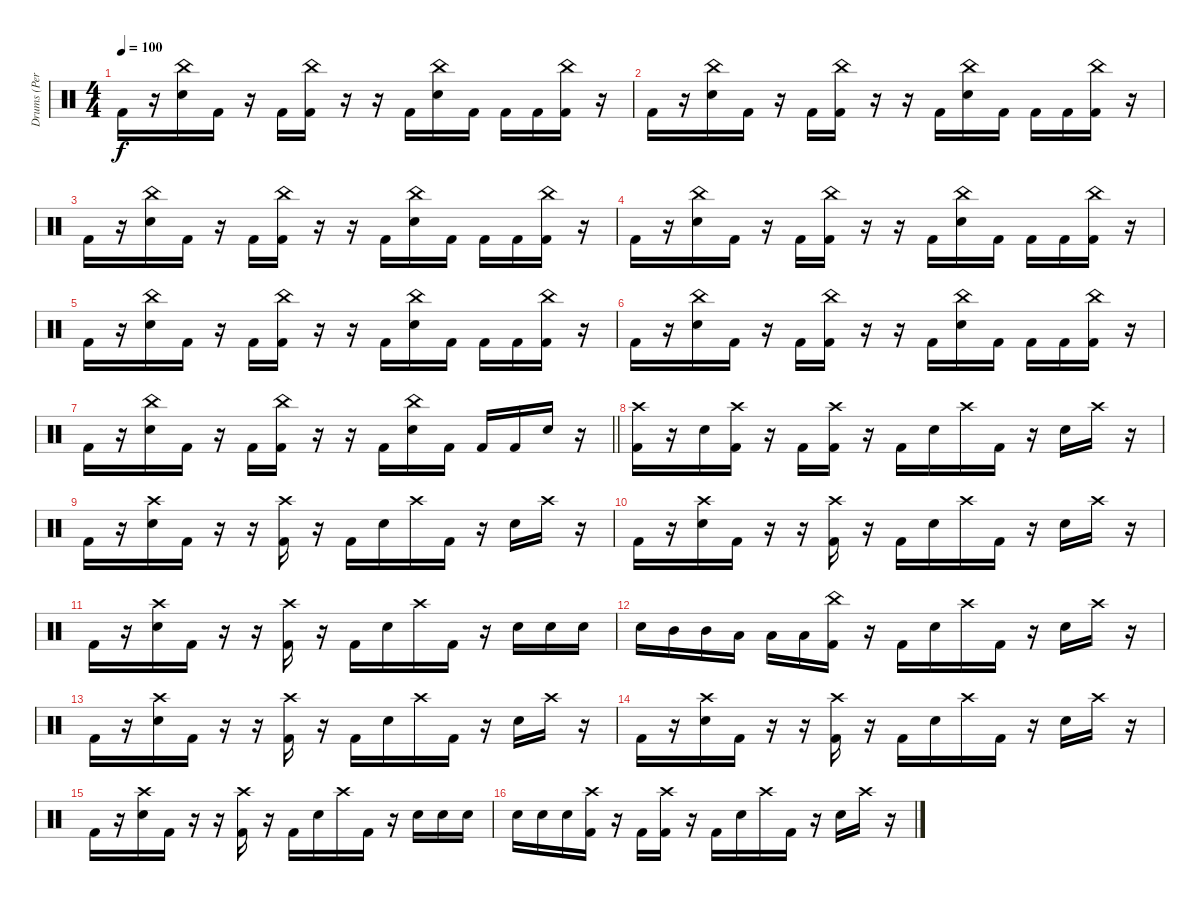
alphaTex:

\track ("Drums (Perttu Kurttila)" "Drums (Per") {instrument percussion}
\staff {score}
\articulation defaults
\ts (4 4)
\tempo 100
\clef neutral
\ks c "Kick (hit) 2".16{dy f}
r.16 ("China (hit)" "Electric Snare (hit)").16 "Kick (hit) 2".16 r.16 "Kick (hit) 2".16 ("China (hit)" "Kick (hit) 2").16 r.16 r.16 "Kick (hit) 2".16 ("China (hit)" "Electric Snare (hit)").16 "Kick (hit) 2".16 "Kick (hit) 2".16 "Kick (hit) 2".16 ("China (hit)" "Kick (hit) 2").16 r.16 |
"Kick (hit) 2".16 r.16 ("China (hit)" "Electric Snare (hit)").16 "Kick (hit) 2".16 r.16 "Kick (hit) 2".16 ("China (hit)" "Kick (hit) 2").16 r.16 r.16 "Kick (hit) 2".16 ("China (hit)" "Electric Snare (hit)").16 "Kick (hit) 2".16 "Kick (hit) 2".16 "Kick (hit) 2".16 ("China (hit)" "Kick (hit) 2").16 r.16 |
"Kick (hit) 2".16 r.16 ("China (hit)" "Electric Snare (hit)").16 "Kick (hit) 2".16 r.16 "Kick (hit) 2".16 ("China (hit)" "Kick (hit) 2").16 r.16 r.16 "Kick (hit) 2".16 ("China (hit)" "Electric Snare (hit)").16 "Kick (hit) 2".16 "Kick (hit) 2".16 "Kick (hit) 2".16 ("China (hit)" "Kick (hit) 2").16 r.16 |
"Kick (hit) 2".16 r.16 ("China (hit)" "Electric Snare (hit)").16 "Kick (hit) 2".16 r.16 "Kick (hit) 2".16 ("China (hit)" "Kick (hit) 2").16 r.16 r.16 "Kick (hit) 2".16 ("China (hit)" "Electric Snare (hit)").16 "Kick (hit) 2".16 "Kick (hit) 2".16 "Kick (hit) 2".16 ("China (hit)" "Kick (hit) 2").16 r.16 |
"Kick (hit) 2".16 r.16 ("China (hit)" "Electric Snare (hit)").16 "Kick (hit) 2".16 r.16 "Kick (hit) 2".16 ("China (hit)" "Kick (hit) 2").16 r.16 r.16 "Kick (hit) 2".16 ("China (hit)" "Electric Snare (hit)").16 "Kick (hit) 2".16 "Kick (hit) 2".16 "Kick (hit) 2".16 ("China (hit)" "Kick (hit) 2").16 r.16 |
"Kick (hit) 2".16 r.16 ("China (hit)" "Electric Snare (hit)").16 "Kick (hit) 2".16 r.16 "Kick (hit) 2".16 ("China (hit)" "Kick (hit) 2").16 r.16 r.16 "Kick (hit) 2".16 ("China (hit)" "Electric Snare (hit)").16 "Kick (hit) 2".16 "Kick (hit) 2".16 "Kick (hit) 2".16 ("China (hit)" "Kick (hit) 2").16 r.16 |
\barLineRight lightlight "Kick (hit) 2".16
r.16 ("China (hit)" "Electric Snare (hit)").16 "Kick (hit) 2".16 r.16 "Kick (hit) 2".16 ("China (hit)" "Kick (hit) 2").16 r.16 r.16 "Kick (hit) 2".16 ("China (hit)" "Electric Snare (hit)").16 "Kick (hit) 2".16 "Kick (hit) 2".16 "Kick (hit) 2".16 "Electric Snare (hit)".16 r.16 |
\section ("" "")
("Crash high (hit)" "Kick (hit) 2").16 r.16 "Electric Snare (hit)".16 ("Crash high (hit)" "Kick (hit) 2").16 r.16 "Kick (hit) 2".16 ("Crash high (hit)" "Kick (hit) 2").16 r.16 "Kick (hit) 2".16 "Electric Snare (hit)".16 "Crash high (hit)".16 "Kick (hit) 2".16 r.16 "Electric Snare (hit)".16 "Crash high (hit)".16 r.16 |
"Kick (hit) 2".16 r.16 ("Crash high (hit)" "Electric Snare (hit)").16 "Kick (hit) 2".16 r.16 r.16 ("Crash high (hit)" "Kick (hit) 2").16 r.16 "Kick (hit) 2".16 "Electric Snare (hit)".16 "Crash high (hit)".16 "Kick (hit) 2".16 r.16 "Electric Snare (hit)".16 "Crash high (hit)".16 r.16 |
"Kick (hit) 2".16 r.16 ("Crash high (hit)" "Electric Snare (hit)").16 "Kick (hit) 2".16 r.16 r.16 ("Crash high (hit)" "Kick (hit) 2").16 r.16 "Kick (hit) 2".16 "Electric Snare (hit)".16 "Crash high (hit)".16 "Kick (hit) 2".16 r.16 "Electric Snare (hit)".16 "Crash high (hit)".16 r.16 |
"Kick (hit) 2".16 r.16 ("Crash high (hit)" "Electric Snare (hit)").16 "Kick (hit) 2".16 r.16 r.16 ("Crash high (hit)" "Kick (hit) 2").16 r.16 "Kick (hit) 2".16 "Electric Snare (hit)".16 "Crash high (hit)".16 "Kick (hit) 2".16 r.16 "Electric Snare (hit)".16 "Electric Snare (hit)".16 "Electric Snare (hit)".16 |
"Electric Snare (hit)".16 "Mid Tom (hit)".16 "Mid Tom (hit)".16 "Low Tom (hit)".16 "Low Tom (hit)".16 "Low Tom (hit)".16 ("China (hit)" "Kick (hit) 2").16 r.16 "Kick (hit) 2".16 "Electric Snare (hit)".16 "Crash high (hit)".16 "Kick (hit) 2".16 r.16 "Electric Snare (hit)".16 "Crash high (hit)".16 r.16 |
"Kick (hit) 2".16 r.16 ("Crash high (hit)" "Electric Snare (hit)").16 "Kick (hit) 2".16 r.16 r.16 ("Crash high (hit)" "Kick (hit) 2").16 r.16 "Kick (hit) 2".16 "Electric Snare (hit)".16 "Crash high (hit)".16 "Kick (hit) 2".16 r.16 "Electric Snare (hit)".16 "Crash high (hit)".16 r.16 |
"Kick (hit) 2".16 r.16 ("Crash high (hit)" "Electric Snare (hit)").16 "Kick (hit) 2".16 r.16 r.16 ("Crash high (hit)" "Kick (hit) 2").16 r.16 "Kick (hit) 2".16 "Electric Snare (hit)".16 "Crash high (hit)".16 "Kick (hit) 2".16 r.16 "Electric Snare (hit)".16 "Crash high (hit)".16 r.16 |
"Kick (hit) 2".16 r.16 ("Crash high (hit)" "Electric Snare (hit)").16 "Kick (hit) 2".16 r.16 r.16 ("Crash high (hit)" "Kick (hit) 2").16 r.16 "Kick (hit) 2".16 "Electric Snare (hit)".16 "Crash high (hit)".16 "Kick (hit) 2".16 r.16 "Electric Snare (hit)".16 "Electric Snare (hit)".16 "Electric Snare (hit)".16 |
"Electric Snare (hit)".16 "Electric Snare (hit)".16 "Electric Snare (hit)".16 ("Crash high (hit)" "Kick (hit) 2").16 r.16 "Kick (hit) 2".16 ("Crash high (hit)" "Kick (hit) 2").16 r.16 "Kick (hit) 2".16 "Electric Snare (hit)".16 "Crash high (hit)".16 "Kick (hit) 2".16 r.16 "Electric Snare (hit)".16 "Crash high (hit)".16 r.16
